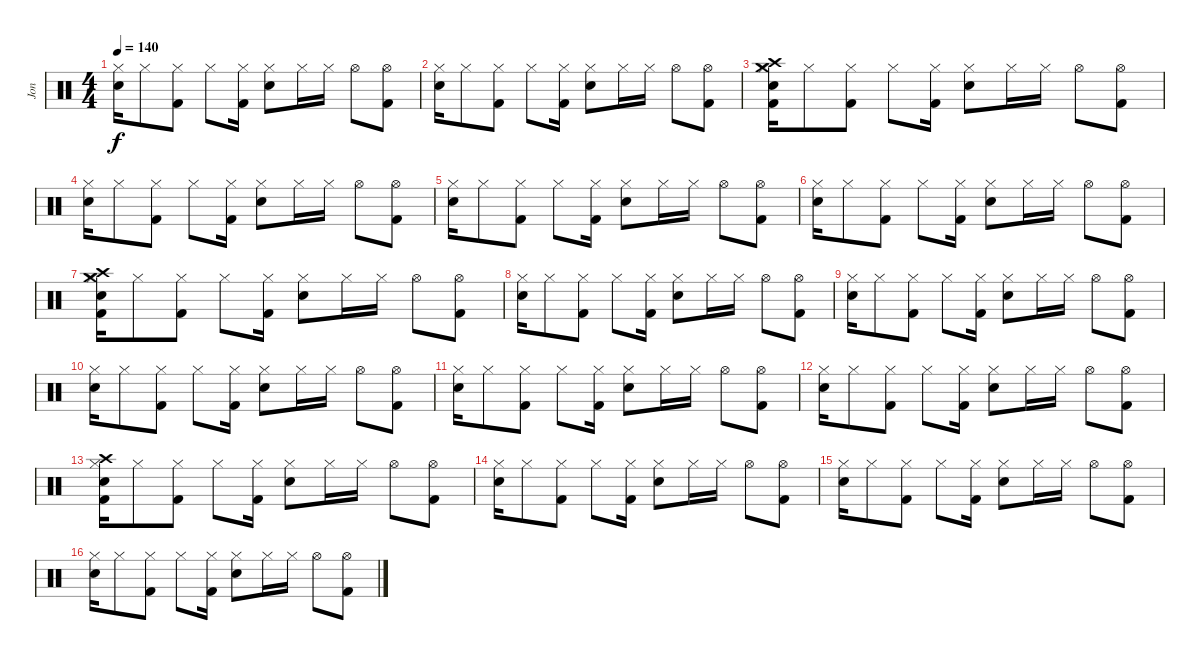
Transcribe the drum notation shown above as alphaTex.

\track ("Jon" "Jon") {instrument percussion}
\staff {score}
\articulation defaults
\ts (4 4)
\tempo 140
\clef neutral
\ks c
("Hi-Hat (closed)" "Electric Snare (hit)").16{dy f} "Hi-Hat (closed)".8 ("Hi-Hat (closed)" "Kick (hit) 2").8 "Hi-Hat (closed)".8 ("Hi-Hat (closed)" "Kick (hit) 2").16 ("Hi-Hat (closed)" "Snare (hit) 2").8 "Hi-Hat (closed)".16 "Hi-Hat (closed)".16 "Hi-Hat (open)".8 ("Hi-Hat (open)" "Kick (hit) 2").8 |
("Hi-Hat (closed)" "Electric Snare (hit)").16 "Hi-Hat (closed)".8 ("Hi-Hat (closed)" "Kick (hit) 2").8 "Hi-Hat (closed)".8 ("Hi-Hat (closed)" "Kick (hit) 2").16 ("Hi-Hat (closed)" "Snare (hit) 2").8 "Hi-Hat (closed)".16 "Hi-Hat (closed)".16 "Hi-Hat (open)".8 ("Hi-Hat (open)" "Kick (hit) 2").8 |
("Crash high (hit)" "Crash medium (hit)" "Hi-Hat (closed)" "Electric Snare (hit)" "Kick (hit) 2").16 "Hi-Hat (closed)".8 ("Hi-Hat (closed)" "Kick (hit) 2").8 "Hi-Hat (closed)".8 ("Hi-Hat (closed)" "Kick (hit) 2").16 ("Hi-Hat (closed)" "Snare (hit) 2").8 "Hi-Hat (closed)".16 "Hi-Hat (closed)".16 "Hi-Hat (open)".8 ("Hi-Hat (open)" "Kick (hit) 2").8 |
("Hi-Hat (closed)" "Electric Snare (hit)").16 "Hi-Hat (closed)".8 ("Hi-Hat (closed)" "Kick (hit) 2").8 "Hi-Hat (closed)".8 ("Hi-Hat (closed)" "Kick (hit) 2").16 ("Hi-Hat (closed)" "Snare (hit) 2").8 "Hi-Hat (closed)".16 "Hi-Hat (closed)".16 "Hi-Hat (open)".8 ("Hi-Hat (open)" "Kick (hit) 2").8 |
("Hi-Hat (closed)" "Electric Snare (hit)").16 "Hi-Hat (closed)".8 ("Hi-Hat (closed)" "Kick (hit) 2").8 "Hi-Hat (closed)".8 ("Hi-Hat (closed)" "Kick (hit) 2").16 ("Hi-Hat (closed)" "Snare (hit) 2").8 "Hi-Hat (closed)".16 "Hi-Hat (closed)".16 "Hi-Hat (open)".8 ("Hi-Hat (open)" "Kick (hit) 2").8 |
("Hi-Hat (closed)" "Electric Snare (hit)").16 "Hi-Hat (closed)".8 ("Hi-Hat (closed)" "Kick (hit) 2").8 "Hi-Hat (closed)".8 ("Hi-Hat (closed)" "Kick (hit) 2").16 ("Hi-Hat (closed)" "Snare (hit) 2").8 "Hi-Hat (closed)".16 "Hi-Hat (closed)".16 "Hi-Hat (open)".8 ("Hi-Hat (open)" "Kick (hit) 2").8 |
("Crash high (hit)" "Crash medium (hit)" "Hi-Hat (closed)" "Electric Snare (hit)" "Kick (hit) 2").16 "Hi-Hat (closed)".8 ("Hi-Hat (closed)" "Kick (hit) 2").8 "Hi-Hat (closed)".8 ("Hi-Hat (closed)" "Kick (hit) 2").16 ("Hi-Hat (closed)" "Snare (hit) 2").8 "Hi-Hat (closed)".16 "Hi-Hat (closed)".16 "Hi-Hat (open)".8 ("Hi-Hat (open)" "Kick (hit) 2").8 |
("Hi-Hat (closed)" "Electric Snare (hit)").16 "Hi-Hat (closed)".8 ("Hi-Hat (closed)" "Kick (hit) 2").8 "Hi-Hat (closed)".8 ("Hi-Hat (closed)" "Kick (hit) 2").16 ("Hi-Hat (closed)" "Snare (hit) 2").8 "Hi-Hat (closed)".16 "Hi-Hat (closed)".16 "Hi-Hat (open)".8 ("Hi-Hat (open)" "Kick (hit) 2").8 |
("Hi-Hat (closed)" "Electric Snare (hit)").16 "Hi-Hat (closed)".8 ("Hi-Hat (closed)" "Kick (hit) 2").8 "Hi-Hat (closed)".8 ("Hi-Hat (closed)" "Kick (hit) 2").16 ("Hi-Hat (closed)" "Snare (hit) 2").8 "Hi-Hat (closed)".16 "Hi-Hat (closed)".16 "Hi-Hat (open)".8 ("Hi-Hat (open)" "Kick (hit) 2").8 |
("Hi-Hat (closed)" "Electric Snare (hit)").16 "Hi-Hat (closed)".8 ("Hi-Hat (closed)" "Kick (hit) 2").8 "Hi-Hat (closed)".8 ("Hi-Hat (closed)" "Kick (hit) 2").16 ("Hi-Hat (closed)" "Snare (hit) 2").8 "Hi-Hat (closed)".16 "Hi-Hat (closed)".16 "Hi-Hat (open)".8 ("Hi-Hat (open)" "Kick (hit) 2").8 |
("Hi-Hat (closed)" "Electric Snare (hit)").16 "Hi-Hat (closed)".8 ("Hi-Hat (closed)" "Kick (hit) 2").8 "Hi-Hat (closed)".8 ("Hi-Hat (closed)" "Kick (hit) 2").16 ("Hi-Hat (closed)" "Snare (hit) 2").8 "Hi-Hat (closed)".16 "Hi-Hat (closed)".16 "Hi-Hat (open)".8 ("Hi-Hat (open)" "Kick (hit) 2").8 |
("Hi-Hat (closed)" "Electric Snare (hit)").16 "Hi-Hat (closed)".8 ("Hi-Hat (closed)" "Kick (hit) 2").8 "Hi-Hat (closed)".8 ("Hi-Hat (closed)" "Kick (hit) 2").16 ("Hi-Hat (closed)" "Snare (hit) 2").8 "Hi-Hat (closed)".16 "Hi-Hat (closed)".16 "Hi-Hat (open)".8 ("Hi-Hat (open)" "Kick (hit) 2").8 |
("Crash high (hit)" "Hi-Hat (closed)" "Electric Snare (hit)" "Kick (hit) 2").16 "Hi-Hat (closed)".8 ("Hi-Hat (closed)" "Kick (hit) 2").8 "Hi-Hat (closed)".8 ("Hi-Hat (closed)" "Kick (hit) 2").16 ("Hi-Hat (closed)" "Snare (hit) 2").8 "Hi-Hat (closed)".16 "Hi-Hat (closed)".16 "Hi-Hat (open)".8 ("Hi-Hat (open)" "Kick (hit) 2").8 |
("Hi-Hat (closed)" "Electric Snare (hit)").16 "Hi-Hat (closed)".8 ("Hi-Hat (closed)" "Kick (hit) 2").8 "Hi-Hat (closed)".8 ("Hi-Hat (closed)" "Kick (hit) 2").16 ("Hi-Hat (closed)" "Snare (hit) 2").8 "Hi-Hat (closed)".16 "Hi-Hat (closed)".16 "Hi-Hat (open)".8 ("Hi-Hat (open)" "Kick (hit) 2").8 |
("Hi-Hat (closed)" "Electric Snare (hit)").16 "Hi-Hat (closed)".8 ("Hi-Hat (closed)" "Kick (hit) 2").8 "Hi-Hat (closed)".8 ("Hi-Hat (closed)" "Kick (hit) 2").16 ("Hi-Hat (closed)" "Snare (hit) 2").8 "Hi-Hat (closed)".16 "Hi-Hat (closed)".16 "Hi-Hat (open)".8 ("Hi-Hat (open)" "Kick (hit) 2").8 |
("Hi-Hat (closed)" "Electric Snare (hit)").16 "Hi-Hat (closed)".8 ("Hi-Hat (closed)" "Kick (hit) 2").8 "Hi-Hat (closed)".8 ("Hi-Hat (closed)" "Kick (hit) 2").16 ("Hi-Hat (closed)" "Snare (hit) 2").8 "Hi-Hat (closed)".16 "Hi-Hat (closed)".16 "Hi-Hat (open)".8 ("Hi-Hat (open)" "Kick (hit) 2").8
